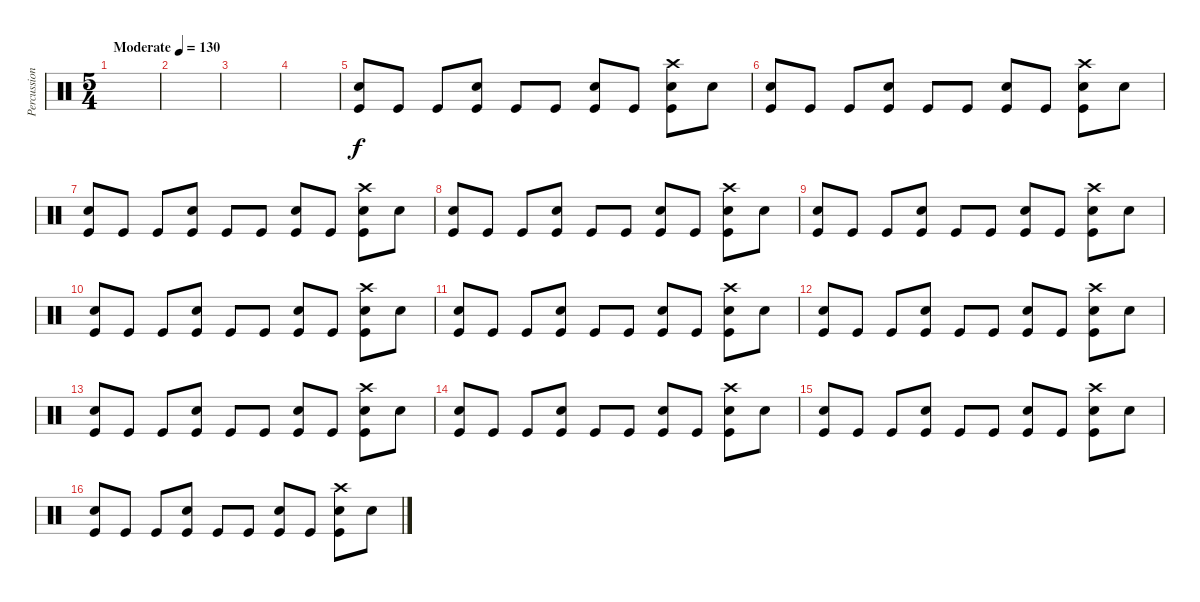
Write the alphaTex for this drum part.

\track ("Percussion" "Percussion") {instrument percussion}
\staff {score}
\articulation defaults
\ts (5 4)
\tempo (130 "Moderate")
\clef neutral
\ks c
|
|
|
|
("Electric Snare (hit)" "Kick (hit)").8 "Kick (hit)".8 "Kick (hit)".8 ("Electric Snare (hit)" "Kick (hit)").8 "Kick (hit)".8 "Kick (hit)".8 ("Electric Snare (hit)" "Kick (hit)").8 "Kick (hit)".8 ("Crash high (hit)" "Electric Snare (hit)" "Kick (hit)").8 "Electric Snare (hit)".8 |
("Electric Snare (hit)" "Kick (hit)").8 "Kick (hit)".8 "Kick (hit)".8 ("Electric Snare (hit)" "Kick (hit)").8 "Kick (hit)".8 "Kick (hit)".8 ("Electric Snare (hit)" "Kick (hit)").8 "Kick (hit)".8 ("Crash high (hit)" "Electric Snare (hit)" "Kick (hit)").8 "Electric Snare (hit)".8 |
("Electric Snare (hit)" "Kick (hit)").8 "Kick (hit)".8 "Kick (hit)".8 ("Electric Snare (hit)" "Kick (hit)").8 "Kick (hit)".8 "Kick (hit)".8 ("Electric Snare (hit)" "Kick (hit)").8 "Kick (hit)".8 ("Crash high (hit)" "Electric Snare (hit)" "Kick (hit)").8 "Electric Snare (hit)".8 |
("Electric Snare (hit)" "Kick (hit)").8 "Kick (hit)".8 "Kick (hit)".8 ("Electric Snare (hit)" "Kick (hit)").8 "Kick (hit)".8 "Kick (hit)".8 ("Electric Snare (hit)" "Kick (hit)").8 "Kick (hit)".8 ("Crash high (hit)" "Electric Snare (hit)" "Kick (hit)").8 "Electric Snare (hit)".8 |
("Electric Snare (hit)" "Kick (hit)").8 "Kick (hit)".8 "Kick (hit)".8 ("Electric Snare (hit)" "Kick (hit)").8 "Kick (hit)".8 "Kick (hit)".8 ("Electric Snare (hit)" "Kick (hit)").8 "Kick (hit)".8 ("Crash high (hit)" "Electric Snare (hit)" "Kick (hit)").8 "Electric Snare (hit)".8 |
("Electric Snare (hit)" "Kick (hit)").8 "Kick (hit)".8 "Kick (hit)".8 ("Electric Snare (hit)" "Kick (hit)").8 "Kick (hit)".8 "Kick (hit)".8 ("Electric Snare (hit)" "Kick (hit)").8 "Kick (hit)".8 ("Crash high (hit)" "Electric Snare (hit)" "Kick (hit)").8 "Electric Snare (hit)".8 |
("Electric Snare (hit)" "Kick (hit)").8 "Kick (hit)".8 "Kick (hit)".8 ("Electric Snare (hit)" "Kick (hit)").8 "Kick (hit)".8 "Kick (hit)".8 ("Electric Snare (hit)" "Kick (hit)").8 "Kick (hit)".8 ("Crash high (hit)" "Electric Snare (hit)" "Kick (hit)").8 "Electric Snare (hit)".8 |
("Electric Snare (hit)" "Kick (hit)").8 "Kick (hit)".8 "Kick (hit)".8 ("Electric Snare (hit)" "Kick (hit)").8 "Kick (hit)".8 "Kick (hit)".8 ("Electric Snare (hit)" "Kick (hit)").8 "Kick (hit)".8 ("Crash high (hit)" "Electric Snare (hit)" "Kick (hit)").8 "Electric Snare (hit)".8 |
("Electric Snare (hit)" "Kick (hit)").8 "Kick (hit)".8 "Kick (hit)".8 ("Electric Snare (hit)" "Kick (hit)").8 "Kick (hit)".8 "Kick (hit)".8 ("Electric Snare (hit)" "Kick (hit)").8 "Kick (hit)".8 ("Crash high (hit)" "Electric Snare (hit)" "Kick (hit)").8 "Electric Snare (hit)".8 |
("Electric Snare (hit)" "Kick (hit)").8 "Kick (hit)".8 "Kick (hit)".8 ("Electric Snare (hit)" "Kick (hit)").8 "Kick (hit)".8 "Kick (hit)".8 ("Electric Snare (hit)" "Kick (hit)").8 "Kick (hit)".8 ("Crash high (hit)" "Electric Snare (hit)" "Kick (hit)").8 "Electric Snare (hit)".8 |
("Electric Snare (hit)" "Kick (hit)").8 "Kick (hit)".8 "Kick (hit)".8 ("Electric Snare (hit)" "Kick (hit)").8 "Kick (hit)".8 "Kick (hit)".8 ("Electric Snare (hit)" "Kick (hit)").8 "Kick (hit)".8 ("Crash high (hit)" "Electric Snare (hit)" "Kick (hit)").8 "Electric Snare (hit)".8 |
("Electric Snare (hit)" "Kick (hit)").8 "Kick (hit)".8 "Kick (hit)".8 ("Electric Snare (hit)" "Kick (hit)").8 "Kick (hit)".8 "Kick (hit)".8 ("Electric Snare (hit)" "Kick (hit)").8 "Kick (hit)".8 ("Crash high (hit)" "Electric Snare (hit)" "Kick (hit)").8 "Electric Snare (hit)".8
